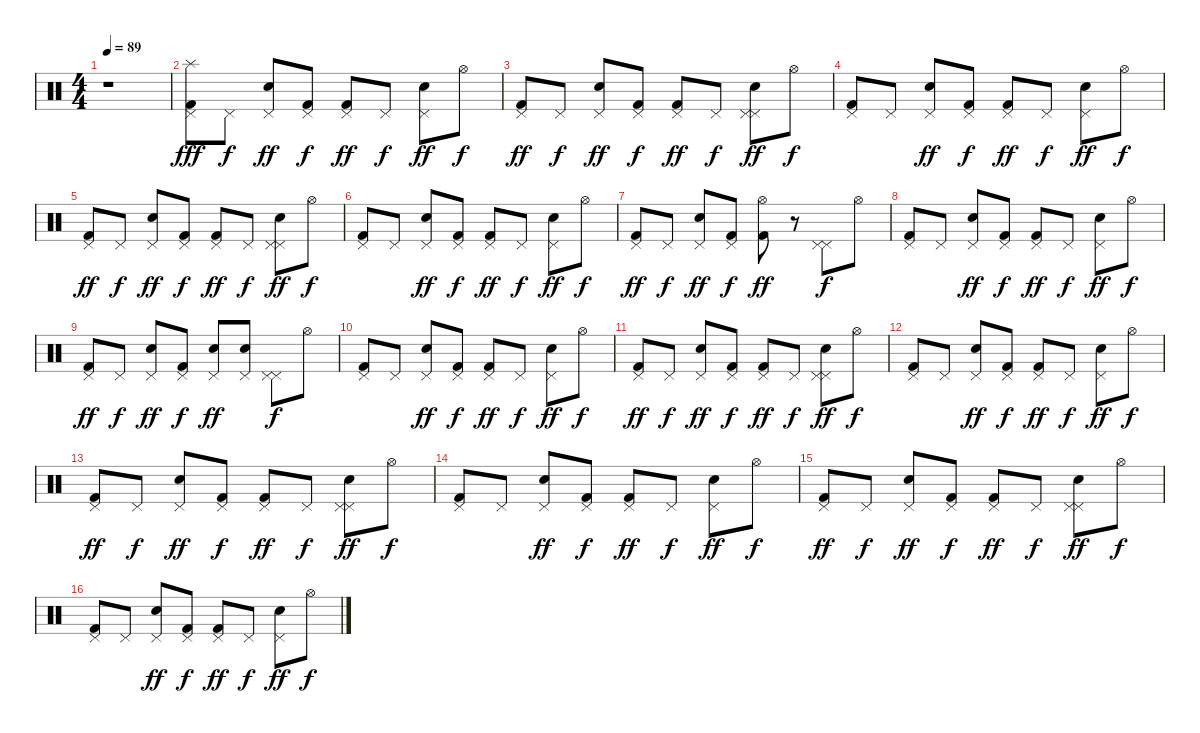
\track "" {instrument percussion}
\staff {score}
\articulation defaults
\ts (4 4)
\tempo 89
\clef neutral
\ks c
r.1{dy fff} |
("Splash (hit)" "Kick (hit) 2" "Pedal Hi-Hat (hit)").8 "Pedal Hi-Hat (hit)".8{dy f} ("Pedal Hi-Hat (hit)" "Electric Snare (hit)").8{dy ff} ("Pedal Hi-Hat (hit)" "Kick (hit) 2").8{dy f} ("Kick (hit) 2" "Pedal Hi-Hat (hit)").8{dy ff} "Pedal Hi-Hat (hit)".8{dy f} ("Pedal Hi-Hat (hit)" "Electric Snare (hit)").8{dy ff} "Hi-Hat (open)".8{dy f} |
("Pedal Hi-Hat (hit)" "Kick (hit) 2").8{dy ff} "Pedal Hi-Hat (hit)".8{dy f} ("Electric Snare (hit)" "Pedal Hi-Hat (hit)").8{dy ff} ("Pedal Hi-Hat (hit)" "Kick (hit) 2").8{dy f} ("Pedal Hi-Hat (hit)" "Kick (hit) 2").8{dy ff} "Pedal Hi-Hat (hit)".8{dy f} ("Pedal Hi-Hat (hit)" "Electric Snare (hit)" "Pedal Hi-Hat (hit)").8{dy ff} "Hi-Hat (open)".8{dy f} |
("Kick (hit) 2" "Pedal Hi-Hat (hit)").8 "Pedal Hi-Hat (hit)".8 ("Pedal Hi-Hat (hit)" "Electric Snare (hit)").8{dy ff} ("Pedal Hi-Hat (hit)" "Kick (hit) 2").8{dy f} ("Kick (hit) 2" "Pedal Hi-Hat (hit)").8{dy ff} "Pedal Hi-Hat (hit)".8{dy f} ("Pedal Hi-Hat (hit)" "Electric Snare (hit)").8{dy ff} "Hi-Hat (open)".8{dy f} |
("Pedal Hi-Hat (hit)" "Kick (hit) 2").8{dy ff} "Pedal Hi-Hat (hit)".8{dy f} ("Electric Snare (hit)" "Pedal Hi-Hat (hit)").8{dy ff} ("Pedal Hi-Hat (hit)" "Kick (hit) 2").8{dy f} ("Pedal Hi-Hat (hit)" "Kick (hit) 2").8{dy ff} "Pedal Hi-Hat (hit)".8{dy f} ("Pedal Hi-Hat (hit)" "Electric Snare (hit)" "Pedal Hi-Hat (hit)").8{dy ff} "Hi-Hat (open)".8{dy f} |
("Kick (hit) 2" "Pedal Hi-Hat (hit)").8 "Pedal Hi-Hat (hit)".8 ("Pedal Hi-Hat (hit)" "Electric Snare (hit)").8{dy ff} ("Pedal Hi-Hat (hit)" "Kick (hit) 2").8{dy f} ("Kick (hit) 2" "Pedal Hi-Hat (hit)").8{dy ff} "Pedal Hi-Hat (hit)".8{dy f} ("Pedal Hi-Hat (hit)" "Electric Snare (hit)").8{dy ff} "Hi-Hat (open)".8{dy f} |
("Pedal Hi-Hat (hit)" "Kick (hit) 2").8{dy ff} "Pedal Hi-Hat (hit)".8{dy f} ("Electric Snare (hit)" "Pedal Hi-Hat (hit)").8{dy ff} ("Pedal Hi-Hat (hit)" "Kick (hit) 2").8{dy f} ("Hi-Hat (open)" "Kick (hit) 2").8{dy ff} r.8 ("Pedal Hi-Hat (hit)" "Pedal Hi-Hat (hit)").8{dy f} "Hi-Hat (open)".8 |
("Kick (hit) 2" "Pedal Hi-Hat (hit)").8 "Pedal Hi-Hat (hit)".8 ("Pedal Hi-Hat (hit)" "Electric Snare (hit)").8{dy ff} ("Pedal Hi-Hat (hit)" "Kick (hit) 2").8{dy f} ("Kick (hit) 2" "Pedal Hi-Hat (hit)").8{dy ff} "Pedal Hi-Hat (hit)".8{dy f} ("Pedal Hi-Hat (hit)" "Electric Snare (hit)").8{dy ff} "Hi-Hat (open)".8{dy f} |
("Pedal Hi-Hat (hit)" "Kick (hit) 2").8{dy ff} "Pedal Hi-Hat (hit)".8{dy f} ("Electric Snare (hit)" "Pedal Hi-Hat (hit)").8{dy ff} ("Pedal Hi-Hat (hit)" "Kick (hit) 2").8{dy f} ("Electric Snare (hit)" "Pedal Hi-Hat (hit)").8{dy ff} ("Electric Snare (hit)" "Pedal Hi-Hat (hit)").8 ("Pedal Hi-Hat (hit)" "Pedal Hi-Hat (hit)").8{dy f} "Hi-Hat (open)".8 |
("Kick (hit) 2" "Pedal Hi-Hat (hit)").8 "Pedal Hi-Hat (hit)".8 ("Pedal Hi-Hat (hit)" "Electric Snare (hit)").8{dy ff} ("Pedal Hi-Hat (hit)" "Kick (hit) 2").8{dy f} ("Kick (hit) 2" "Pedal Hi-Hat (hit)").8{dy ff} "Pedal Hi-Hat (hit)".8{dy f} ("Pedal Hi-Hat (hit)" "Electric Snare (hit)").8{dy ff} "Hi-Hat (open)".8{dy f} |
("Pedal Hi-Hat (hit)" "Kick (hit) 2").8{dy ff} "Pedal Hi-Hat (hit)".8{dy f} ("Electric Snare (hit)" "Pedal Hi-Hat (hit)").8{dy ff} ("Pedal Hi-Hat (hit)" "Kick (hit) 2").8{dy f} ("Pedal Hi-Hat (hit)" "Kick (hit) 2").8{dy ff} "Pedal Hi-Hat (hit)".8{dy f} ("Pedal Hi-Hat (hit)" "Electric Snare (hit)" "Pedal Hi-Hat (hit)").8{dy ff} "Hi-Hat (open)".8{dy f} |
("Kick (hit) 2" "Pedal Hi-Hat (hit)").8 "Pedal Hi-Hat (hit)".8 ("Pedal Hi-Hat (hit)" "Electric Snare (hit)").8{dy ff} ("Pedal Hi-Hat (hit)" "Kick (hit) 2").8{dy f} ("Kick (hit) 2" "Pedal Hi-Hat (hit)").8{dy ff} "Pedal Hi-Hat (hit)".8{dy f} ("Pedal Hi-Hat (hit)" "Electric Snare (hit)").8{dy ff} "Hi-Hat (open)".8{dy f} |
("Pedal Hi-Hat (hit)" "Kick (hit) 2").8{dy ff} "Pedal Hi-Hat (hit)".8{dy f} ("Electric Snare (hit)" "Pedal Hi-Hat (hit)").8{dy ff} ("Pedal Hi-Hat (hit)" "Kick (hit) 2").8{dy f} ("Pedal Hi-Hat (hit)" "Kick (hit) 2").8{dy ff} "Pedal Hi-Hat (hit)".8{dy f} ("Pedal Hi-Hat (hit)" "Electric Snare (hit)" "Pedal Hi-Hat (hit)").8{dy ff} "Hi-Hat (open)".8{dy f} |
("Kick (hit) 2" "Pedal Hi-Hat (hit)").8 "Pedal Hi-Hat (hit)".8 ("Pedal Hi-Hat (hit)" "Electric Snare (hit)").8{dy ff} ("Pedal Hi-Hat (hit)" "Kick (hit) 2").8{dy f} ("Kick (hit) 2" "Pedal Hi-Hat (hit)").8{dy ff} "Pedal Hi-Hat (hit)".8{dy f} ("Pedal Hi-Hat (hit)" "Electric Snare (hit)").8{dy ff} "Hi-Hat (open)".8{dy f} |
("Pedal Hi-Hat (hit)" "Kick (hit) 2").8{dy ff} "Pedal Hi-Hat (hit)".8{dy f} ("Electric Snare (hit)" "Pedal Hi-Hat (hit)").8{dy ff} ("Pedal Hi-Hat (hit)" "Kick (hit) 2").8{dy f} ("Pedal Hi-Hat (hit)" "Kick (hit) 2").8{dy ff} "Pedal Hi-Hat (hit)".8{dy f} ("Pedal Hi-Hat (hit)" "Electric Snare (hit)" "Pedal Hi-Hat (hit)").8{dy ff} "Hi-Hat (open)".8{dy f} |
("Kick (hit) 2" "Pedal Hi-Hat (hit)").8 "Pedal Hi-Hat (hit)".8 ("Pedal Hi-Hat (hit)" "Electric Snare (hit)").8{dy ff} ("Pedal Hi-Hat (hit)" "Kick (hit) 2").8{dy f} ("Kick (hit) 2" "Pedal Hi-Hat (hit)").8{dy ff} "Pedal Hi-Hat (hit)".8{dy f} ("Pedal Hi-Hat (hit)" "Electric Snare (hit)").8{dy ff} "Hi-Hat (open)".8{dy f}
